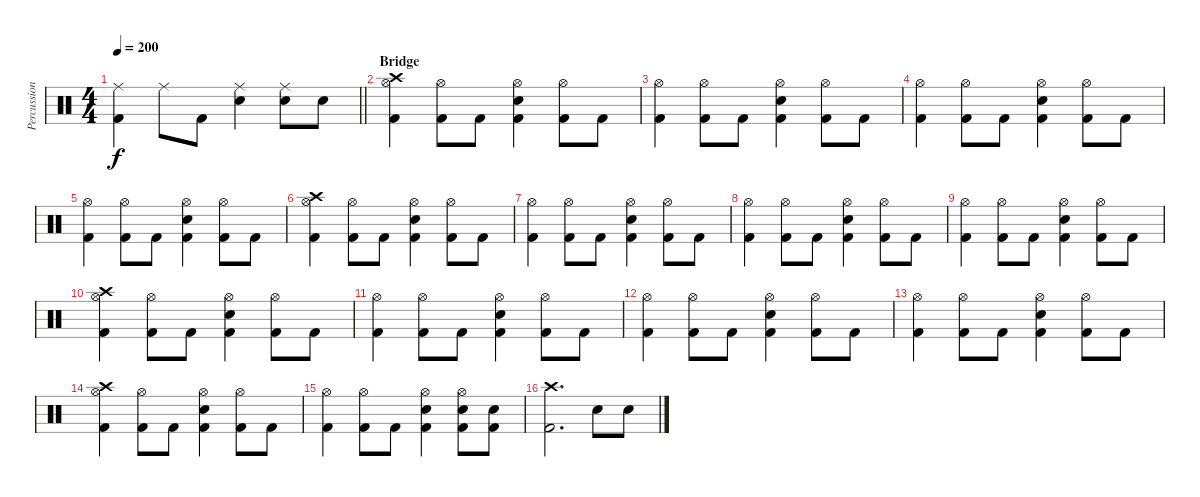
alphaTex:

\track ("Percussion" "Percussion") {instrument percussion}
\staff {score}
\articulation defaults
\ts (4 4)
\tempo 200
\clef neutral
\barLineRight lightlight
\ks c
("Ride (middle)" "Kick (hit) 2").4{dy f} "Ride (middle)".8 "Kick (hit) 2".8 ("Ride (middle)" "Snare (hit) 2").4 ("Ride (middle)" "Snare (hit) 2").8 "Snare (hit) 2".8 |
\section ("" "Bridge")
("Crash high (hit)" "Hi-Hat (open)" "Kick (hit) 2").4 ("Hi-Hat (open)" "Kick (hit) 2").8 "Kick (hit) 2".8 ("Hi-Hat (open)" "Snare (hit) 2" "Kick (hit) 2").4 ("Hi-Hat (open)" "Kick (hit) 2").8 "Kick (hit) 2".8 |
("Hi-Hat (open)" "Kick (hit) 2").4 ("Hi-Hat (open)" "Kick (hit) 2").8 "Kick (hit) 2".8 ("Hi-Hat (open)" "Snare (hit) 2" "Kick (hit) 2").4 ("Hi-Hat (open)" "Kick (hit) 2").8 "Kick (hit) 2".8 |
("Hi-Hat (open)" "Kick (hit) 2").4 ("Hi-Hat (open)" "Kick (hit) 2").8 "Kick (hit) 2".8 ("Hi-Hat (open)" "Snare (hit) 2" "Kick (hit) 2").4 ("Hi-Hat (open)" "Kick (hit) 2").8 "Kick (hit) 2".8 |
("Hi-Hat (open)" "Kick (hit) 2").4 ("Hi-Hat (open)" "Kick (hit) 2").8 "Kick (hit) 2".8 ("Hi-Hat (open)" "Snare (hit) 2" "Kick (hit) 2").4 ("Hi-Hat (open)" "Kick (hit) 2").8 "Kick (hit) 2".8 |
("Crash high (hit)" "Hi-Hat (open)" "Kick (hit) 2").4 ("Hi-Hat (open)" "Kick (hit) 2").8 "Kick (hit) 2".8 ("Hi-Hat (open)" "Snare (hit) 2" "Kick (hit) 2").4 ("Hi-Hat (open)" "Kick (hit) 2").8 "Kick (hit) 2".8 |
("Hi-Hat (open)" "Kick (hit) 2").4 ("Hi-Hat (open)" "Kick (hit) 2").8 "Kick (hit) 2".8 ("Hi-Hat (open)" "Snare (hit) 2" "Kick (hit) 2").4 ("Hi-Hat (open)" "Kick (hit) 2").8 "Kick (hit) 2".8 |
("Hi-Hat (open)" "Kick (hit) 2").4 ("Hi-Hat (open)" "Kick (hit) 2").8 "Kick (hit) 2".8 ("Hi-Hat (open)" "Snare (hit) 2" "Kick (hit) 2").4 ("Hi-Hat (open)" "Kick (hit) 2").8 "Kick (hit) 2".8 |
("Hi-Hat (open)" "Kick (hit) 2").4 ("Hi-Hat (open)" "Kick (hit) 2").8 "Kick (hit) 2".8 ("Hi-Hat (open)" "Snare (hit) 2" "Kick (hit) 2").4 ("Hi-Hat (open)" "Kick (hit) 2").8 "Kick (hit) 2".8 |
("Crash high (hit)" "Hi-Hat (open)" "Kick (hit) 2").4 ("Hi-Hat (open)" "Kick (hit) 2").8 "Kick (hit) 2".8 ("Hi-Hat (open)" "Snare (hit) 2" "Kick (hit) 2").4 ("Hi-Hat (open)" "Kick (hit) 2").8 "Kick (hit) 2".8 |
("Hi-Hat (open)" "Kick (hit) 2").4 ("Hi-Hat (open)" "Kick (hit) 2").8 "Kick (hit) 2".8 ("Hi-Hat (open)" "Snare (hit) 2" "Kick (hit) 2").4 ("Hi-Hat (open)" "Kick (hit) 2").8 "Kick (hit) 2".8 |
("Hi-Hat (open)" "Kick (hit) 2").4 ("Hi-Hat (open)" "Kick (hit) 2").8 "Kick (hit) 2".8 ("Hi-Hat (open)" "Snare (hit) 2" "Kick (hit) 2").4 ("Hi-Hat (open)" "Kick (hit) 2").8 "Kick (hit) 2".8 |
("Hi-Hat (open)" "Kick (hit) 2").4 ("Hi-Hat (open)" "Kick (hit) 2").8 "Kick (hit) 2".8 ("Hi-Hat (open)" "Snare (hit) 2" "Kick (hit) 2").4 ("Hi-Hat (open)" "Kick (hit) 2").8 "Kick (hit) 2".8 |
("Crash high (hit)" "Hi-Hat (open)" "Kick (hit) 2").4 ("Hi-Hat (open)" "Kick (hit) 2").8 "Kick (hit) 2".8 ("Hi-Hat (open)" "Snare (hit) 2" "Kick (hit) 2").4 ("Hi-Hat (open)" "Kick (hit) 2").8 "Kick (hit) 2".8 |
("Hi-Hat (open)" "Kick (hit) 2").4 ("Hi-Hat (open)" "Kick (hit) 2").8 "Kick (hit) 2".8 ("Hi-Hat (open)" "Snare (hit) 2" "Kick (hit) 2").4 ("Hi-Hat (open)" "Snare (hit) 2" "Kick (hit) 2").8 ("Snare (hit) 2" "Kick (hit) 2").8 |
("Crash high (hit)" "Kick (hit) 2").2{d} "Snare (hit) 2".8 "Snare (hit) 2".8
